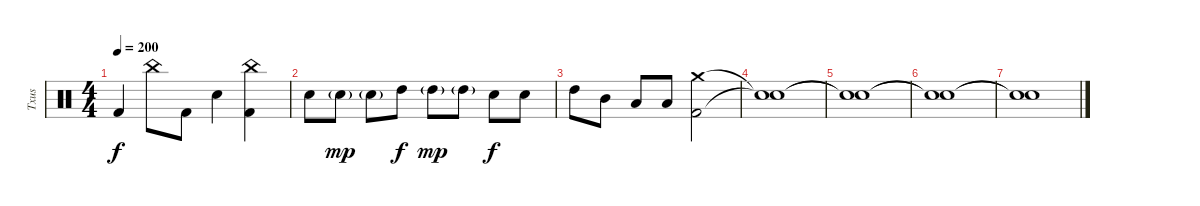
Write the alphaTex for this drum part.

\track ("Txus" "Txus") {instrument percussion}
\staff {score}
\articulation defaults
\ts (4 4)
\tempo 200
\clef neutral
\ks c "Kick (hit) 2".4{dy f} "China (hit)".8 "Kick (hit) 2".8 "Snare (hit) 2".4
("China (hit)" "Kick (hit) 2").4 |
"Snare (hit) 2".8 "Snare (hit) 2"{g}.8{dy mp} "Snare (hit) 2"{g}.8 "High Tom (hit)".8{dy f} "High Tom (hit)"{g}.8{dy mp} "High Tom (hit)"{g}.8 "Snare (hit) 2".8{dy f} "Snare (hit) 2".8 |
"High Tom (hit)".8 "Mid Tom (hit)".8 "Low Tom (hit)".8 "Low Tom (hit)".8 ("Crash medium (hit)" "Kick (hit) 2").2 |
("Snare (hit)"{t} "Snare (hit)"{t}).1 |
("Snare (hit)"{t} "Snare (hit)"{t}).1 |
("Snare (hit)"{t} "Snare (hit)"{t}).1 |
("Snare (hit)"{t} "Snare (hit)"{t}).1
